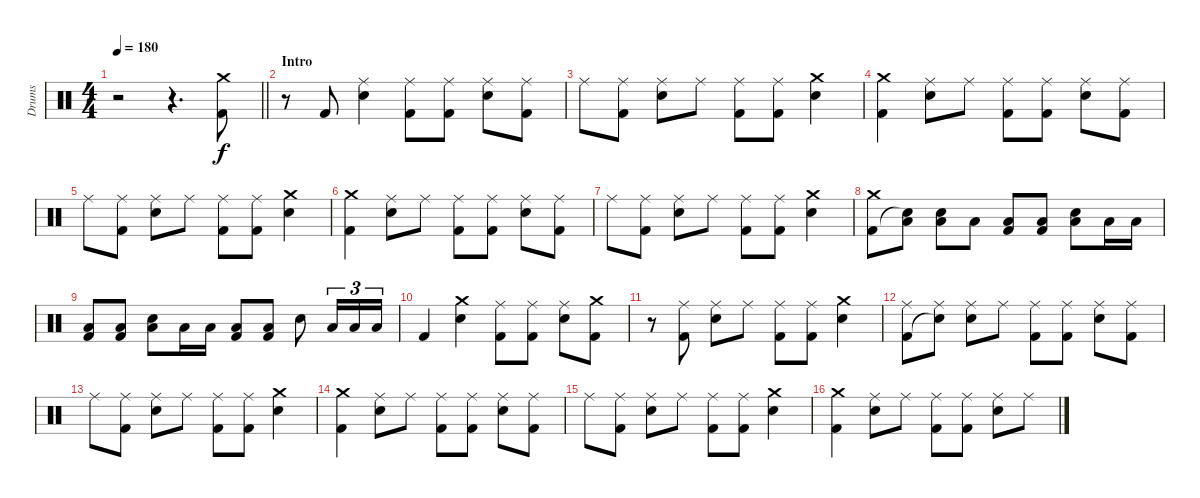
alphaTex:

\track ("Drums" "Drums") {instrument percussion}
\staff {score}
\articulation defaults
\ts (4 4)
\tempo 180
\clef neutral
\barLineRight lightlight
\ks c
r.2{dy f} r.4{d} ("Crash medium (hit)" "Kick (hit) 2").8 |
\section ("" "Intro")
r.8 "Kick (hit) 2".8 ("Ride (middle)" "Electric Snare (hit)").4 ("Ride (middle)" "Kick (hit) 2").8 ("Ride (middle)" "Kick (hit) 2").8 ("Ride (middle)" "Electric Snare (hit)").8 ("Ride (middle)" "Kick (hit) 2").8 |
"Ride (middle)".8 ("Ride (middle)" "Kick (hit) 2").8 ("Ride (middle)" "Electric Snare (hit)").8 "Ride (middle)".8 ("Ride (middle)" "Kick (hit) 2").8 ("Ride (middle)" "Kick (hit) 2").8 ("Crash medium (hit)" "Electric Snare (hit)").4 |
("Crash medium (hit)" "Kick (hit) 2").4 ("Ride (middle)" "Electric Snare (hit)").8 "Ride (middle)".8 ("Ride (middle)" "Kick (hit) 2").8 ("Ride (middle)" "Kick (hit) 2").8 ("Ride (middle)" "Electric Snare (hit)").8 ("Ride (middle)" "Kick (hit) 2").8 |
"Ride (middle)".8 ("Ride (middle)" "Kick (hit) 2").8 ("Ride (middle)" "Electric Snare (hit)").8 "Ride (middle)".8 ("Ride (middle)" "Kick (hit) 2").8 ("Ride (middle)" "Kick (hit) 2").8 ("Crash medium (hit)" "Electric Snare (hit)").4 |
("Crash medium (hit)" "Kick (hit) 2").4 ("Ride (middle)" "Electric Snare (hit)").8 "Ride (middle)".8 ("Ride (middle)" "Kick (hit) 2").8 ("Ride (middle)" "Kick (hit) 2").8 ("Ride (middle)" "Electric Snare (hit)").8 ("Ride (middle)" "Kick (hit) 2").8 |
"Ride (middle)".8 ("Ride (middle)" "Kick (hit) 2").8 ("Ride (middle)" "Electric Snare (hit)").8 "Ride (middle)".8 ("Ride (middle)" "Kick (hit) 2").8 ("Ride (middle)" "Kick (hit) 2").8 ("Crash medium (hit)" "Electric Snare (hit)").4 |
("Crash medium (hit)" "Kick (hit) 2").8 ("Low Floor Tom (hit)" "Snare (hit)"{t}).8 ("Electric Snare (hit)" "Low Floor Tom (hit)").8 "Low Floor Tom (hit)".8 ("Low Floor Tom (hit)" "Kick (hit) 2").8 ("Low Floor Tom (hit)" "Kick (hit) 2").8 ("Electric Snare (hit)" "Low Floor Tom (hit)").8 "Low Floor Tom (hit)".16 "Low Floor Tom (hit)".16 |
("Low Floor Tom (hit)" "Kick (hit) 2").8 ("Low Floor Tom (hit)" "Kick (hit) 2").8 ("Electric Snare (hit)" "Low Floor Tom (hit)").8 "Low Floor Tom (hit)".16 "Low Floor Tom (hit)".16 ("Low Floor Tom (hit)" "Kick (hit) 2").8 ("Low Floor Tom (hit)" "Kick (hit) 2").8 "Electric Snare (hit)".8 "Low Floor Tom (hit)".16{tu (3 2)} "Low Floor Tom (hit)".16{tu (3 2)} "Low Floor Tom (hit)".16{tu (3 2)} |
"Kick (hit) 2".4 ("Crash medium (hit)" "Electric Snare (hit)").4 ("Ride (middle)" "Kick (hit) 2").8 ("Ride (middle)" "Kick (hit) 2").8 ("Ride (middle)" "Electric Snare (hit)").8 ("Crash medium (hit)" "Kick (hit) 2").8 |
r.8 ("Ride (middle)" "Kick (hit) 2").8 ("Ride (middle)" "Electric Snare (hit)").8 "Ride (middle)".8 ("Ride (middle)" "Kick (hit) 2").8 ("Ride (middle)" "Kick (hit) 2").8 ("Crash medium (hit)" "Electric Snare (hit)").4 |
("Ride (middle)" "Kick (hit) 2").8 ("Ride (middle)" "Snare (hit)"{t}).8 ("Ride (middle)" "Electric Snare (hit)").8 "Ride (middle)".8 ("Ride (middle)" "Kick (hit) 2").8 ("Ride (middle)" "Kick (hit) 2").8 ("Ride (middle)" "Electric Snare (hit)").8 ("Ride (middle)" "Kick (hit) 2").8 |
"Ride (middle)".8 ("Ride (middle)" "Kick (hit) 2").8 ("Ride (middle)" "Electric Snare (hit)").8 "Ride (middle)".8 ("Ride (middle)" "Kick (hit) 2").8 ("Ride (middle)" "Kick (hit) 2").8 ("Crash medium (hit)" "Electric Snare (hit)").4 |
("Crash medium (hit)" "Kick (hit) 2").4 ("Ride (middle)" "Electric Snare (hit)").8 "Ride (middle)".8 ("Ride (middle)" "Kick (hit) 2").8 ("Ride (middle)" "Kick (hit) 2").8 ("Ride (middle)" "Electric Snare (hit)").8 ("Ride (middle)" "Kick (hit) 2").8 |
"Ride (middle)".8 ("Ride (middle)" "Kick (hit) 2").8 ("Ride (middle)" "Electric Snare (hit)").8 "Ride (middle)".8 ("Ride (middle)" "Kick (hit) 2").8 ("Ride (middle)" "Kick (hit) 2").8 ("Crash medium (hit)" "Electric Snare (hit)").4 |
("Crash medium (hit)" "Kick (hit) 2").4 ("Ride (middle)" "Electric Snare (hit)").8 "Ride (middle)".8 ("Ride (middle)" "Kick (hit) 2").8 ("Ride (middle)" "Kick (hit) 2").8 ("Ride (middle)" "Electric Snare (hit)").8 "Ride (middle)".8
